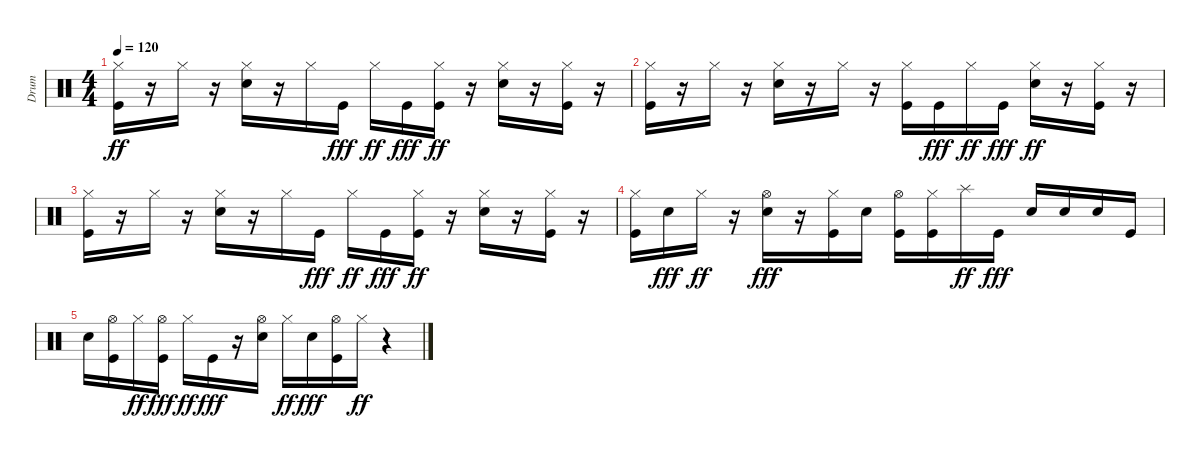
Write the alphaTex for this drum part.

\track ("Drum" "Drum") {instrument percussion}
\staff {score}
\articulation defaults
\ts (4 4)
\tempo 120
\clef neutral
\ks c
("Kick (hit)" "Hi-Hat (closed)").16{dy ff} r.16 "Hi-Hat (closed)".16 r.16 ("Electric Snare (hit)" "Hi-Hat (closed)").16 r.16 "Hi-Hat (closed)".16 "Kick (hit)".16{dy fff} "Hi-Hat (closed)".16{dy ff} "Kick (hit)".16{dy fff} ("Kick (hit)" "Hi-Hat (closed)").16{dy ff} r.16 ("Electric Snare (hit)" "Hi-Hat (closed)").16 r.16 ("Kick (hit)" "Hi-Hat (closed)").16 r.16 |
("Kick (hit)" "Hi-Hat (closed)").16 r.16 "Hi-Hat (closed)".16 r.16 ("Electric Snare (hit)" "Hi-Hat (closed)").16 r.16 "Hi-Hat (closed)".16 r.16 ("Kick (hit)" "Hi-Hat (closed)").16 "Kick (hit)".16{dy fff} "Hi-Hat (closed)".16{dy ff} "Kick (hit)".16{dy fff} ("Electric Snare (hit)" "Hi-Hat (closed)").16{dy ff} r.16 ("Kick (hit)" "Hi-Hat (closed)").16 r.16 |
("Kick (hit)" "Hi-Hat (closed)").16 r.16 "Hi-Hat (closed)".16 r.16 ("Electric Snare (hit)" "Hi-Hat (closed)").16 r.16 "Hi-Hat (closed)".16 "Kick (hit)".16{dy fff} "Hi-Hat (closed)".16{dy ff} "Kick (hit)".16{dy fff} ("Kick (hit)" "Hi-Hat (closed)").16{dy ff} r.16 ("Electric Snare (hit)" "Hi-Hat (closed)").16 r.16 ("Kick (hit)" "Hi-Hat (closed)").16 r.16 |
("Kick (hit)" "Hi-Hat (closed)").16 "Electric Snare (hit)".16{dy fff} "Hi-Hat (closed)".16{dy ff} r.16 ("Hi-Hat (open)" "Electric Snare (hit)").16{dy fff} r.16 ("Hi-Hat (closed)" "Kick (hit)").16 "Electric Snare (hit)".16 ("Hi-Hat (open)" "Kick (hit)").16 ("Hi-Hat (closed)" "Kick (hit)").16 "Splash (hit)".16{dy ff} "Kick (hit)".16{dy fff} "Electric Snare (hit)".16 "Electric Snare (hit)".16 "Electric Snare (hit)".16 "Kick (hit)".16 |
"Electric Snare (hit)".16 ("Hi-Hat (open)" "Kick (hit)").16 "Hi-Hat (closed)".16{dy ff} ("Hi-Hat (open)" "Kick (hit)").16{dy fff} "Hi-Hat (closed)".16{dy ff} "Kick (hit)".16{dy fff} r.16 ("Hi-Hat (open)" "Electric Snare (hit)").16 "Hi-Hat (closed)".16{dy ff} "Electric Snare (hit)".16{dy fff} ("Hi-Hat (open)" "Kick (hit)").16 "Hi-Hat (closed)".16{dy ff} r.4
